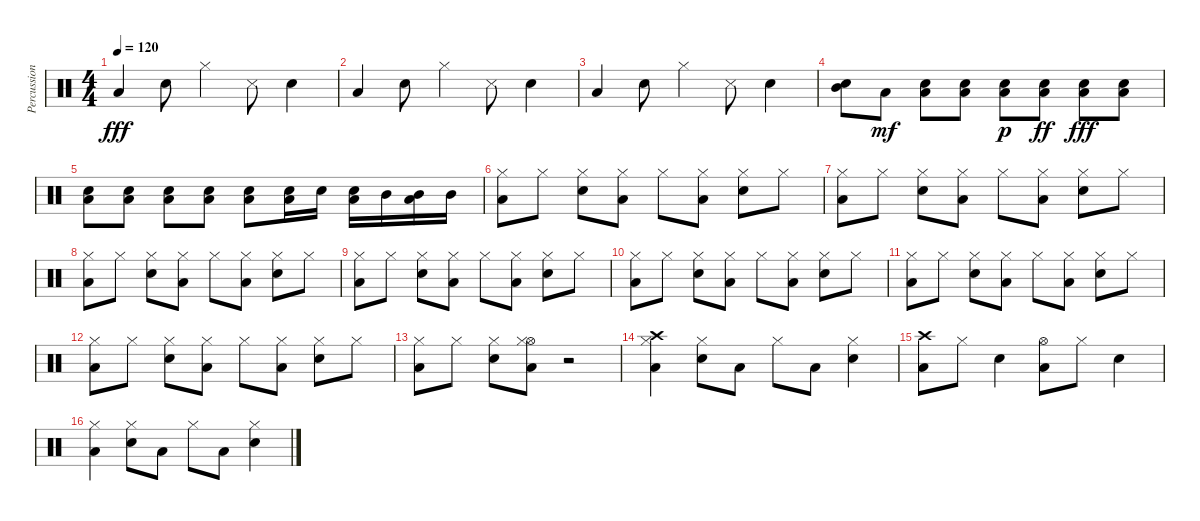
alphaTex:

\track ("Percussion" "Percussion") {instrument percussion}
\staff {score}
\articulation defaults
\ts (4 4)
\tempo 120
\clef neutral
\ks c "Low Tom (hit)".4{dy fff} "Electric Snare (hit)".8 "Hi-Hat (closed)".4 "Snare (side stick) 3".8 "Electric Snare (hit)".4
|
"Low Tom (hit)".4 "Electric Snare (hit)".8 "Hi-Hat (closed)".4 "Snare (side stick) 3".8 "Electric Snare (hit)".4 |
"Low Tom (hit)".4 "Electric Snare (hit)".8 "Hi-Hat (closed)".4 "Snare (side stick) 3".8 "Electric Snare (hit)".4 |
("Electric Snare (hit)" "Mid Tom (hit)").8 "Low Tom (hit)".8{dy mf} ("Electric Snare (hit)" "Low Tom (hit)").8 ("Electric Snare (hit)" "Low Tom (hit)").8 ("Electric Snare (hit)" "Low Tom (hit)").8{dy p} ("Electric Snare (hit)" "Low Tom (hit)").8{dy ff} ("Electric Snare (hit)" "Low Tom (hit)").8{dy fff} ("Electric Snare (hit)" "Low Tom (hit)").8 |
("Electric Snare (hit)" "Low Tom (hit)").8 ("Electric Snare (hit)" "Low Tom (hit)").8 ("Electric Snare (hit)" "Low Tom (hit)").8 ("Electric Snare (hit)" "Low Tom (hit)").8 ("Electric Snare (hit)" "Low Tom (hit)").8 ("Electric Snare (hit)" "Low Tom (hit)").16 "Electric Snare (hit)".16 ("Electric Snare (hit)" "Low Tom (hit)").16 "Mid Tom (hit)".16 ("Mid Tom (hit)" "Low Tom (hit)").16 "Mid Tom (hit)".16 |
("Hi-Hat (closed)" "Low Tom (hit)").8 "Hi-Hat (closed)".8 ("Hi-Hat (closed)" "Electric Snare (hit)").8 ("Hi-Hat (closed)" "Low Tom (hit)").8 "Hi-Hat (closed)".8 ("Hi-Hat (closed)" "Low Tom (hit)").8 ("Hi-Hat (closed)" "Electric Snare (hit)").8 "Hi-Hat (closed)".8 |
("Hi-Hat (closed)" "Low Tom (hit)").8 "Hi-Hat (closed)".8 ("Hi-Hat (closed)" "Electric Snare (hit)").8 ("Hi-Hat (closed)" "Low Tom (hit)").8 "Hi-Hat (closed)".8 ("Hi-Hat (closed)" "Low Tom (hit)").8 ("Hi-Hat (closed)" "Electric Snare (hit)").8 "Hi-Hat (closed)".8 |
("Hi-Hat (closed)" "Low Tom (hit)").8 "Hi-Hat (closed)".8 ("Hi-Hat (closed)" "Electric Snare (hit)").8 ("Hi-Hat (closed)" "Low Tom (hit)").8 "Hi-Hat (closed)".8 ("Hi-Hat (closed)" "Low Tom (hit)").8 ("Hi-Hat (closed)" "Electric Snare (hit)").8 "Hi-Hat (closed)".8 |
("Hi-Hat (closed)" "Low Tom (hit)").8 "Hi-Hat (closed)".8 ("Hi-Hat (closed)" "Electric Snare (hit)").8 ("Hi-Hat (closed)" "Low Tom (hit)").8 "Hi-Hat (closed)".8 ("Hi-Hat (closed)" "Low Tom (hit)").8 ("Hi-Hat (closed)" "Electric Snare (hit)").8 "Hi-Hat (closed)".8 |
("Hi-Hat (closed)" "Low Tom (hit)").8 "Hi-Hat (closed)".8 ("Hi-Hat (closed)" "Electric Snare (hit)").8 ("Hi-Hat (closed)" "Low Tom (hit)").8 "Hi-Hat (closed)".8 ("Hi-Hat (closed)" "Low Tom (hit)").8 ("Hi-Hat (closed)" "Electric Snare (hit)").8 "Hi-Hat (closed)".8 |
("Hi-Hat (closed)" "Low Tom (hit)").8 "Hi-Hat (closed)".8 ("Hi-Hat (closed)" "Electric Snare (hit)").8 ("Hi-Hat (closed)" "Low Tom (hit)").8 "Hi-Hat (closed)".8 ("Hi-Hat (closed)" "Low Tom (hit)").8 ("Hi-Hat (closed)" "Electric Snare (hit)").8 "Hi-Hat (closed)".8 |
("Hi-Hat (closed)" "Low Tom (hit)").8 "Hi-Hat (closed)".8 ("Hi-Hat (closed)" "Electric Snare (hit)").8 ("Hi-Hat (closed)" "Low Tom (hit)").8 "Hi-Hat (closed)".8 ("Hi-Hat (closed)" "Low Tom (hit)").8 ("Hi-Hat (closed)" "Electric Snare (hit)").8 "Hi-Hat (closed)".8 |
("Hi-Hat (closed)" "Low Tom (hit)").8 "Hi-Hat (closed)".8 ("Hi-Hat (closed)" "Electric Snare (hit)").8 ("Hi-Hat (open)" "Hi-Hat (closed)" "Low Tom (hit)").8 r.2 |
("Crash high (hit)" "Hi-Hat (closed)" "Low Tom (hit)").4 ("Hi-Hat (closed)" "Electric Snare (hit)").8 "Low Tom (hit)".8 "Hi-Hat (closed)".8 "Low Tom (hit)".8 ("Hi-Hat (closed)" "Electric Snare (hit)").4 |
("Crash high (hit)" "Low Tom (hit)").8 "Hi-Hat (closed)".8 "Electric Snare (hit)".4 ("Hi-Hat (open)" "Low Tom (hit)").8 "Hi-Hat (closed)".8 "Electric Snare (hit)".4 |
("Hi-Hat (closed)" "Low Tom (hit)").4 ("Hi-Hat (closed)" "Electric Snare (hit)").8 "Low Tom (hit)".8 "Hi-Hat (closed)".8 "Low Tom (hit)".8 ("Hi-Hat (closed)" "Electric Snare (hit)").4
